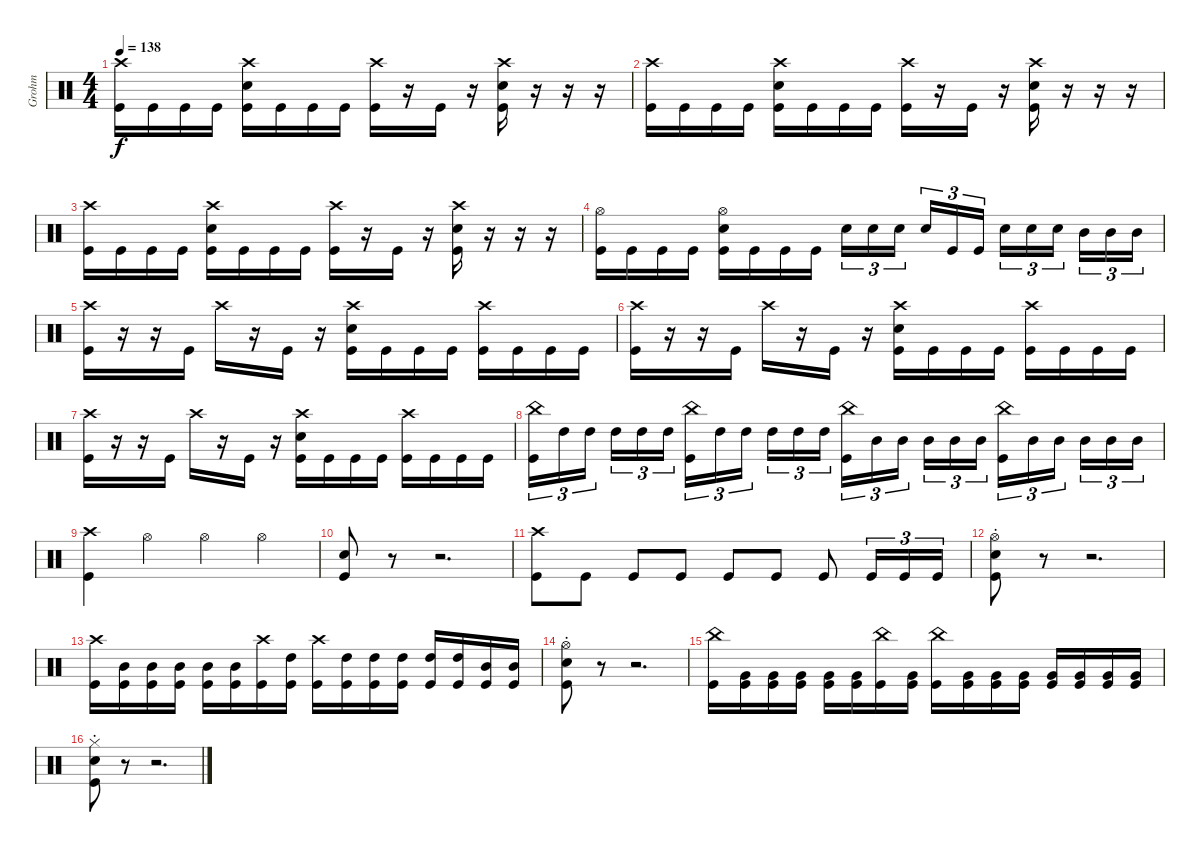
\track ("Grohm" "Grohm") {instrument percussion}
\staff {score}
\articulation defaults
\ts (4 4)
\tempo 138
\clef neutral
\ks c
("Crash high (hit)" "Kick (hit)").16{dy f} "Kick (hit)".16 "Kick (hit)".16 "Kick (hit)".16 ("Crash high (hit)" "Snare (hit) 2" "Kick (hit)").16 "Kick (hit)".16 "Kick (hit)".16 "Kick (hit)".16 ("Crash high (hit)" "Kick (hit)").16 r.16 "Kick (hit)".16 r.16 ("Crash high (hit)" "Snare (hit) 2" "Kick (hit)").16 r.16 r.16 r.16 |
("Crash high (hit)" "Kick (hit)").16 "Kick (hit)".16 "Kick (hit)".16 "Kick (hit)".16 ("Crash high (hit)" "Snare (hit) 2" "Kick (hit)").16 "Kick (hit)".16 "Kick (hit)".16 "Kick (hit)".16 ("Crash high (hit)" "Kick (hit)").16 r.16 "Kick (hit)".16 r.16 ("Crash high (hit)" "Snare (hit) 2" "Kick (hit)").16 r.16 r.16 r.16 |
("Crash high (hit)" "Kick (hit)").16 "Kick (hit)".16 "Kick (hit)".16 "Kick (hit)".16 ("Crash high (hit)" "Snare (hit) 2" "Kick (hit)").16 "Kick (hit)".16 "Kick (hit)".16 "Kick (hit)".16 ("Crash high (hit)" "Kick (hit)").16 r.16 "Kick (hit)".16 r.16 ("Crash high (hit)" "Snare (hit) 2" "Kick (hit)").16 r.16 r.16 r.16 |
("Hi-Hat (open)" "Kick (hit)").16 "Kick (hit)".16 "Kick (hit)".16 "Kick (hit)".16 ("Hi-Hat (open)" "Snare (hit) 2" "Kick (hit)").16 "Kick (hit)".16 "Kick (hit)".16 "Kick (hit)".16 "Snare (hit) 2".16{tu (3 2)} "Snare (hit) 2".16{tu (3 2)} "Snare (hit) 2".16{tu (3 2) beam splitsecondary} "Snare (hit) 2".16{tu (3 2)} "Kick (hit)".16{tu (3 2)} "Kick (hit)".16{tu (3 2)} "Snare (hit) 2".16{tu (3 2)} "Snare (hit) 2".16{tu (3 2)} "Snare (hit) 2".16{tu (3 2) beam splitsecondary} "Mid Tom (hit)".16{tu (3 2)} "Mid Tom (hit)".16{tu (3 2)} "Mid Tom (hit)".16{tu (3 2)} |
("Crash high (hit)" "Kick (hit)").16 r.16 r.16 "Kick (hit)".16 "Crash high (hit)".16 r.16 "Kick (hit)".16 r.16 ("Crash high (hit)" "Snare (hit) 2" "Kick (hit)").16 "Kick (hit)".16 "Kick (hit)".16 "Kick (hit)".16 ("Crash high (hit)" "Kick (hit)").16 "Kick (hit)".16 "Kick (hit)".16 "Kick (hit)".16 |
("Crash high (hit)" "Kick (hit)").16 r.16 r.16 "Kick (hit)".16 "Crash high (hit)".16 r.16 "Kick (hit)".16 r.16 ("Crash high (hit)" "Snare (hit) 2" "Kick (hit)").16 "Kick (hit)".16 "Kick (hit)".16 "Kick (hit)".16 ("Crash high (hit)" "Kick (hit)").16 "Kick (hit)".16 "Kick (hit)".16 "Kick (hit)".16 |
("Crash high (hit)" "Kick (hit)").16 r.16 r.16 "Kick (hit)".16 "Crash high (hit)".16 r.16 "Kick (hit)".16 r.16 ("Crash high (hit)" "Snare (hit) 2" "Kick (hit)").16 "Kick (hit)".16 "Kick (hit)".16 "Kick (hit)".16 ("Crash high (hit)" "Kick (hit)").16 "Kick (hit)".16 "Kick (hit)".16 "Kick (hit)".16 |
("China (hit)" "Kick (hit)").16{tu (3 2)} "High Tom (hit)".16{tu (3 2)} "High Tom (hit)".16{tu (3 2) beam splitsecondary} "High Tom (hit)".16{tu (3 2)} "High Tom (hit)".16{tu (3 2)} "High Tom (hit)".16{tu (3 2)} ("China (hit)" "Kick (hit)").16{tu (3 2)} "High Tom (hit)".16{tu (3 2)} "High Tom (hit)".16{tu (3 2) beam splitsecondary} "High Tom (hit)".16{tu (3 2)} "High Tom (hit)".16{tu (3 2)} "High Tom (hit)".16{tu (3 2)} ("China (hit)" "Kick (hit)").16{tu (3 2)} "Mid Tom (hit)".16{tu (3 2)} "Mid Tom (hit)".16{tu (3 2) beam splitsecondary} "Mid Tom (hit)".16{tu (3 2)} "Mid Tom (hit)".16{tu (3 2)} "Mid Tom (hit)".16{tu (3 2)} ("China (hit)" "Kick (hit)").16{tu (3 2)} "Mid Tom (hit)".16{tu (3 2)} "Mid Tom (hit)".16{tu (3 2) beam splitsecondary} "Mid Tom (hit)".16{tu (3 2)} "Mid Tom (hit)".16{tu (3 2)} "Mid Tom (hit)".16{tu (3 2)} |
("Crash high (hit)" "Kick (hit)").4 "Hi-Hat (open)".4 "Hi-Hat (open)".4 "Hi-Hat (open)".4 |
("Snare (hit) 2" "Kick (hit)").8 r.8 r.2{d} |
("Crash high (hit)" "Kick (hit)").8 "Kick (hit)".8 "Kick (hit)".8 "Kick (hit)".8 "Kick (hit)".8 "Kick (hit)".8 "Kick (hit)".8 "Kick (hit)".16{tu (3 2)} "Kick (hit)".16{tu (3 2)} "Kick (hit)".16{tu (3 2)} |
("Hi-Hat (open)"{st} "Snare (hit) 2"{st} "Kick (hit)"{st}).8 r.8 r.2{d} |
("Crash high (hit)" "Kick (hit)").16 ("Mid Tom (hit)" "Kick (hit)").16 ("Mid Tom (hit)" "Kick (hit)").16 ("Mid Tom (hit)" "Kick (hit)").16 ("Mid Tom (hit)" "Kick (hit)").16 ("Mid Tom (hit)" "Kick (hit)").16 ("Crash high (hit)" "Kick (hit)").16 ("High Tom (hit)" "Kick (hit)").16 ("Crash high (hit)" "Kick (hit)").16 ("High Tom (hit)" "Kick (hit)").16 ("High Tom (hit)" "Kick (hit)").16 ("High Tom (hit)" "Kick (hit)").16 ("High Tom (hit)" "Kick (hit)").16 ("High Tom (hit)" "Kick (hit)").16 ("Mid Tom (hit)" "Kick (hit)").16 ("Mid Tom (hit)" "Kick (hit)").16 |
("Hi-Hat (open)"{st} "Snare (hit) 2"{st} "Kick (hit)"{st}).8 r.8 r.2{d} |
("China (hit)" "Kick (hit)").16 ("Very Low Tom (hit)" "Kick (hit)").16 ("Very Low Tom (hit)" "Kick (hit)").16 ("Very Low Tom (hit)" "Kick (hit)").16 ("Very Low Tom (hit)" "Kick (hit)").16 ("Very Low Tom (hit)" "Kick (hit)").16 ("China (hit)" "Kick (hit)").16 ("Very Low Tom (hit)" "Kick (hit)").16 ("China (hit)" "Kick (hit)").16 ("Very Low Tom (hit)" "Kick (hit)").16 ("Very Low Tom (hit)" "Kick (hit)").16 ("Very Low Tom (hit)" "Kick (hit)").16 ("Very Low Tom (hit)" "Kick (hit)").16 ("Very Low Tom (hit)" "Kick (hit)").16 ("Very Low Tom (hit)" "Kick (hit)").16 ("Very Low Tom (hit)" "Kick (hit)").16 |
("Hi-Hat (closed)"{st} "Snare (hit) 2"{st} "Kick (hit)"{st}).8 r.8 r.2{d}
